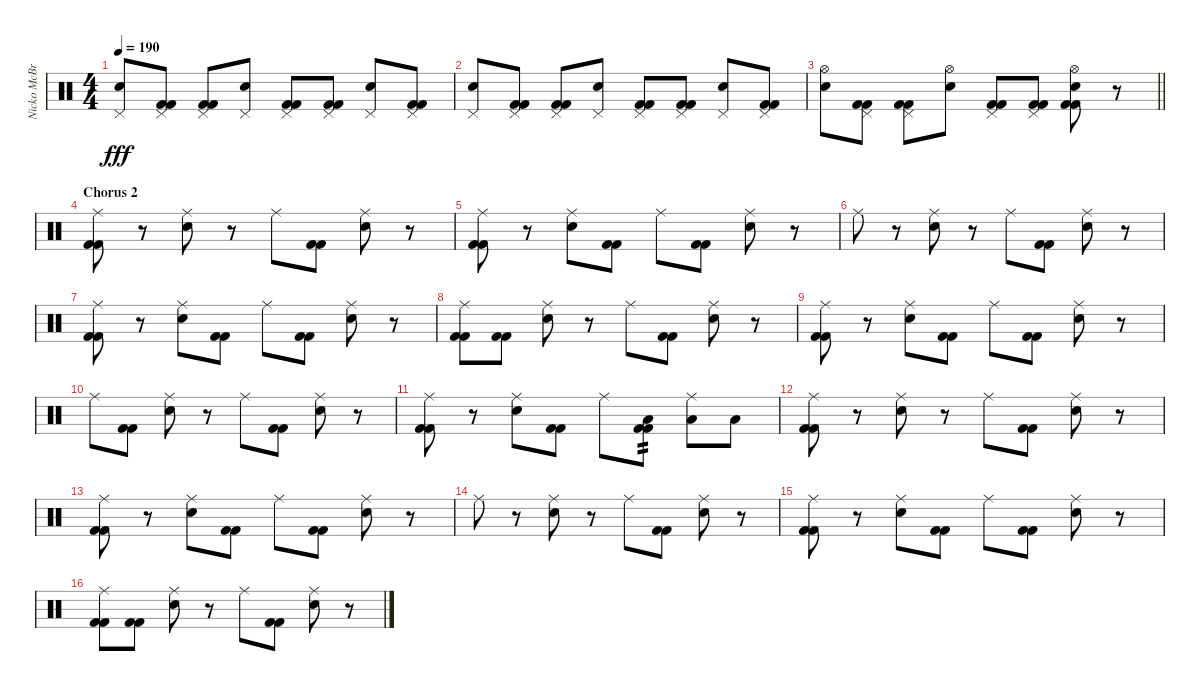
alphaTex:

\track ("Nicko McBrain" "Nicko McBr") {instrument percussion}
\staff {score}
\articulation defaults
\ts (4 4)
\tempo 190
\clef neutral
\ks c
("Snare (hit) 2" "Pedal Hi-Hat (hit)").8{dy fff} ("Pedal Hi-Hat (hit)" "Kick (hit) 2" "Kick (hit) 2").8 ("Pedal Hi-Hat (hit)" "Kick (hit) 2" "Kick (hit) 2").8 ("Snare (hit) 2" "Pedal Hi-Hat (hit)").8 ("Pedal Hi-Hat (hit)" "Kick (hit) 2" "Kick (hit) 2").8 ("Pedal Hi-Hat (hit)" "Kick (hit) 2" "Kick (hit) 2").8 ("Snare (hit) 2" "Pedal Hi-Hat (hit)").8 ("Pedal Hi-Hat (hit)" "Kick (hit) 2" "Kick (hit) 2").8 |
("Snare (hit) 2" "Pedal Hi-Hat (hit)").8 ("Pedal Hi-Hat (hit)" "Kick (hit) 2" "Kick (hit) 2").8 ("Pedal Hi-Hat (hit)" "Kick (hit) 2" "Kick (hit) 2").8 ("Snare (hit) 2" "Pedal Hi-Hat (hit)").8 ("Pedal Hi-Hat (hit)" "Kick (hit) 2" "Kick (hit) 2").8 ("Pedal Hi-Hat (hit)" "Kick (hit) 2" "Kick (hit) 2").8 ("Snare (hit) 2" "Pedal Hi-Hat (hit)").8 ("Pedal Hi-Hat (hit)" "Kick (hit) 2" "Kick (hit) 2").8 |
\barLineRight lightlight
("Snare (hit) 2" "Hi-Hat (open)").8 ("Pedal Hi-Hat (hit)" "Kick (hit) 2" "Kick (hit) 2").8 ("Pedal Hi-Hat (hit)" "Kick (hit) 2" "Kick (hit) 2").8 ("Snare (hit) 2" "Hi-Hat (open)").8 ("Pedal Hi-Hat (hit)" "Kick (hit) 2" "Kick (hit) 2").8 ("Pedal Hi-Hat (hit)" "Kick (hit) 2" "Kick (hit) 2").8 ("Snare (hit) 2" "Hi-Hat (open)" "Kick (hit) 2" "Kick (hit) 2").8 r.8 |
\section ("" "Chorus 2")
("Ride (middle)" "Kick (hit) 2" "Kick (hit) 2").8 r.8 ("Snare (hit) 2" "Ride (middle)").8 r.8 "Ride (middle)".8 ("Kick (hit) 2" "Kick (hit) 2").8 ("Snare (hit) 2" "Ride (middle)").8 r.8 |
("Ride (middle)" "Kick (hit) 2" "Kick (hit) 2").8 r.8 ("Snare (hit) 2" "Ride (middle)").8 ("Kick (hit) 2" "Kick (hit) 2").8 "Ride (middle)".8 ("Kick (hit) 2" "Kick (hit) 2").8 ("Snare (hit) 2" "Ride (middle)").8 r.8 |
"Ride (middle)".8 r.8 ("Snare (hit) 2" "Ride (middle)").8 r.8 "Ride (middle)".8 ("Kick (hit) 2" "Kick (hit) 2").8 ("Snare (hit) 2" "Ride (middle)").8 r.8 |
("Ride (middle)" "Kick (hit) 2" "Kick (hit) 2").8 r.8 ("Snare (hit) 2" "Ride (middle)").8 ("Kick (hit) 2" "Kick (hit) 2").8 "Ride (middle)".8 ("Kick (hit) 2" "Kick (hit) 2").8 ("Snare (hit) 2" "Ride (middle)").8 r.8 |
("Ride (middle)" "Kick (hit) 2" "Kick (hit) 2").8 ("Kick (hit) 2" "Kick (hit) 2").8 ("Snare (hit) 2" "Ride (middle)").8 r.8 "Ride (middle)".8 ("Kick (hit) 2" "Kick (hit) 2").8 ("Snare (hit) 2" "Ride (middle)").8 r.8 |
("Ride (middle)" "Kick (hit) 2" "Kick (hit) 2").8 r.8 ("Snare (hit) 2" "Ride (middle)").8 ("Kick (hit) 2" "Kick (hit) 2").8 "Ride (middle)".8 ("Kick (hit) 2" "Kick (hit) 2").8 ("Snare (hit) 2" "Ride (middle)").8 r.8 |
"Ride (middle)".8 ("Kick (hit) 2" "Kick (hit) 2").8 ("Snare (hit) 2" "Ride (middle)").8 r.8 "Ride (middle)".8 ("Kick (hit) 2" "Kick (hit) 2").8 ("Snare (hit) 2" "Ride (middle)").8 r.8 |
("Ride (middle)" "Kick (hit) 2" "Kick (hit) 2").8 r.8 ("Snare (hit) 2" "Ride (middle)").8 ("Kick (hit) 2" "Kick (hit) 2").8 "Ride (middle)".8 ("Low Tom (hit)" "Kick (hit) 2" "Kick (hit) 2").8{tp 2} ("Low Tom (hit)" "Ride (middle)").8 "Low Tom (hit)".8 |
("Ride (middle)" "Kick (hit) 2" "Kick (hit) 2").8 r.8 ("Snare (hit) 2" "Ride (middle)").8 r.8 "Ride (middle)".8 ("Kick (hit) 2" "Kick (hit) 2").8 ("Snare (hit) 2" "Ride (middle)").8 r.8 |
("Ride (middle)" "Kick (hit) 2" "Kick (hit) 2").8 r.8 ("Snare (hit) 2" "Ride (middle)").8 ("Kick (hit) 2" "Kick (hit) 2").8 "Ride (middle)".8 ("Kick (hit) 2" "Kick (hit) 2").8 ("Snare (hit) 2" "Ride (middle)").8 r.8 |
"Ride (middle)".8 r.8 ("Snare (hit) 2" "Ride (middle)").8 r.8 "Ride (middle)".8 ("Kick (hit) 2" "Kick (hit) 2").8 ("Snare (hit) 2" "Ride (middle)").8 r.8 |
("Ride (middle)" "Kick (hit) 2" "Kick (hit) 2").8 r.8 ("Snare (hit) 2" "Ride (middle)").8 ("Kick (hit) 2" "Kick (hit) 2").8 "Ride (middle)".8 ("Kick (hit) 2" "Kick (hit) 2").8 ("Snare (hit) 2" "Ride (middle)").8 r.8 |
("Ride (middle)" "Kick (hit) 2" "Kick (hit) 2").8 ("Kick (hit) 2" "Kick (hit) 2").8 ("Snare (hit) 2" "Ride (middle)").8 r.8 "Ride (middle)".8 ("Kick (hit) 2" "Kick (hit) 2").8 ("Snare (hit) 2" "Ride (middle)").8 r.8
